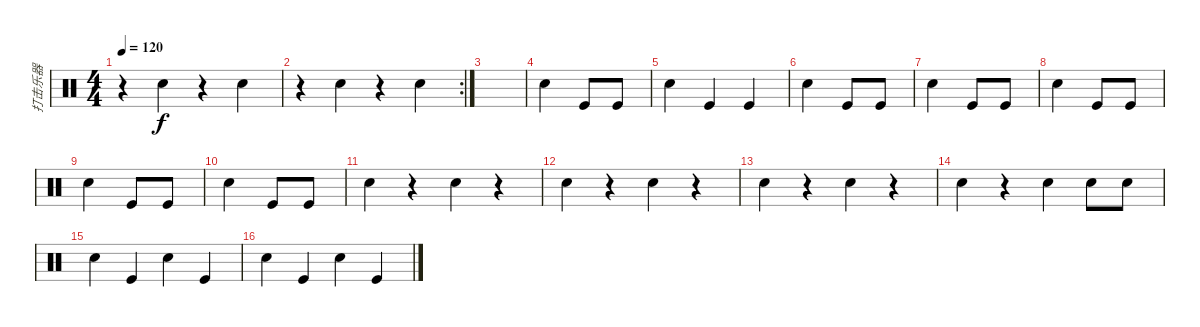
\track ("打击乐器" "打击乐器") {instrument percussion}
\staff {score}
\articulation defaults
\ts (4 4)
\tempo 120
\clef neutral
\ks c
r.4{dy f} "Electric Snare (hit)".4 r.4 "Electric Snare (hit)".4 |
\rc 2
r.4 "Electric Snare (hit)".4 r.4 "Electric Snare (hit)".4 |
|
"Snare (hit) 2".4 "Kick (hit)".8 "Kick (hit)".8 |
"Snare (hit) 2".4 "Kick (hit)".4 "Kick (hit)".4 |
"Electric Snare (hit)".4 "Kick (hit)".8 "Kick (hit)".8 |
"Electric Snare (hit)".4 "Kick (hit)".8 "Kick (hit)".8 |
"Electric Snare (hit)".4 "Kick (hit)".8 "Kick (hit)".8 |
"Electric Snare (hit)".4 "Kick (hit)".8 "Kick (hit)".8 |
"Electric Snare (hit)".4 "Kick (hit)".8 "Kick (hit)".8 |
"Electric Snare (hit)".4 r.4 "Electric Snare (hit)".4 r.4 |
"Electric Snare (hit)".4 r.4 "Electric Snare (hit)".4 r.4 |
"Electric Snare (hit)".4 r.4 "Electric Snare (hit)".4 r.4 |
"Electric Snare (hit)".4 r.4 "Electric Snare (hit)".4 "Electric Snare (hit)".8 "Electric Snare (hit)".8 |
"Electric Snare (hit)".4 "Kick (hit)".4 "Electric Snare (hit)".4 "Kick (hit)".4 |
"Electric Snare (hit)".4 "Kick (hit)".4 "Electric Snare (hit)".4 "Kick (hit)".4
